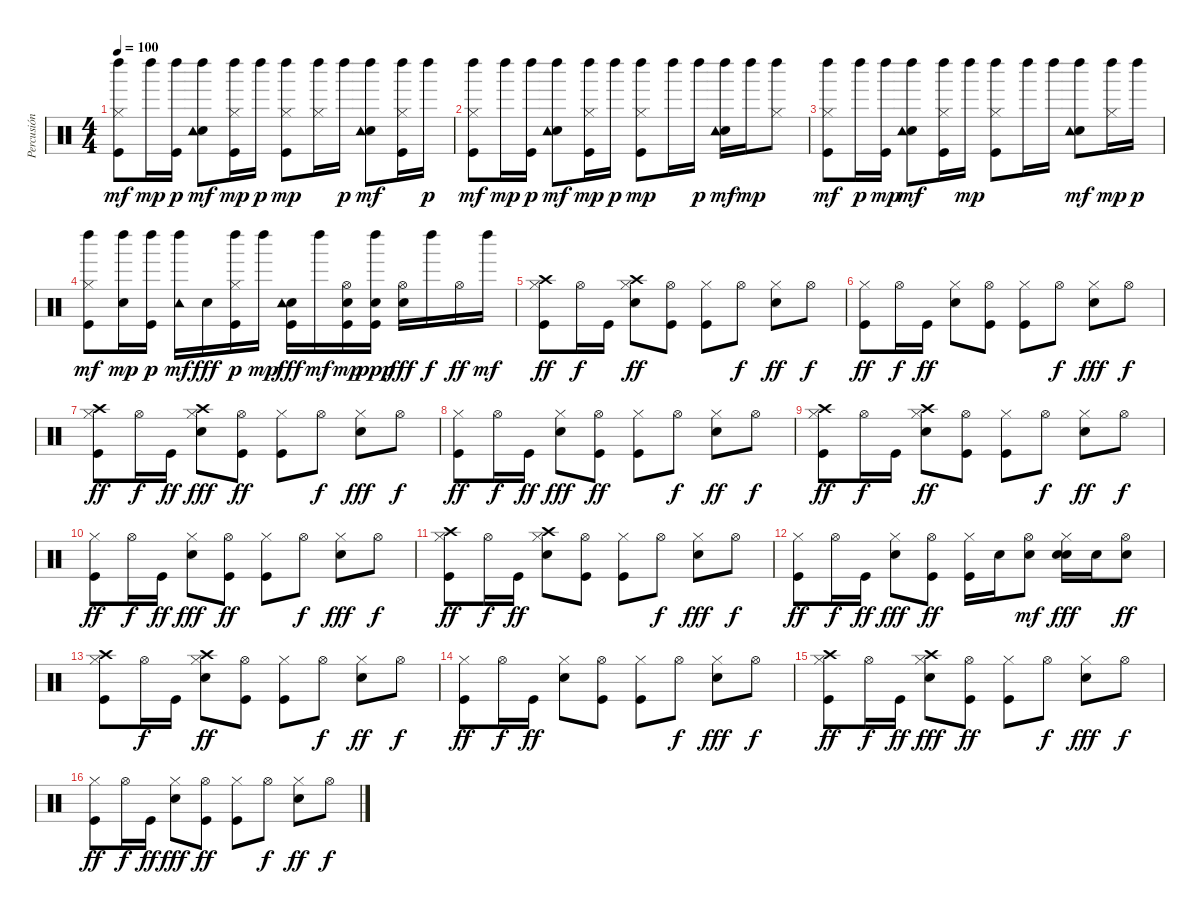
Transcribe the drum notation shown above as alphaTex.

\track ("Percusión" "Percusión") {instrument percussion}
\staff {score}
\articulation defaults
\ts (4 4)
\tempo 100
\clef neutral
\ks c
("Kick (hit)" "Hi-Hat (closed)" "Left Maraca (hit)").8{dy mf} "Left Maraca (hit)".16{dy mp} ("Kick (hit)" "Left Maraca (hit)").16{dy p} ("Snare (hit) 2" "Tambourine (hit)" "Left Maraca (hit)").8{dy mf} ("Kick (hit)" "Hi-Hat (closed)" "Left Maraca (hit)").16{dy mp} "Left Maraca (hit)".16{dy p} ("Kick (hit)" "Hi-Hat (closed)" "Left Maraca (hit)").8{dy mp} ("Hi-Hat (closed)" "Left Maraca (hit)").16 "Left Maraca (hit)".16{dy p} ("Snare (hit) 2" "Tambourine (hit)" "Left Maraca (hit)").8{dy mf} ("Kick (hit)" "Hi-Hat (closed)" "Left Maraca (hit)").16 "Left Maraca (hit)".16{dy p} |
("Kick (hit)" "Hi-Hat (closed)" "Left Maraca (hit)").8{dy mf} "Left Maraca (hit)".16{dy mp} ("Kick (hit)" "Left Maraca (hit)").16{dy p} ("Snare (hit) 2" "Tambourine (hit)" "Left Maraca (hit)").8{dy mf} ("Kick (hit)" "Hi-Hat (closed)" "Left Maraca (hit)").16{dy mp} "Left Maraca (hit)".16{dy p} ("Kick (hit)" "Hi-Hat (closed)" "Left Maraca (hit)").8{dy mp} "Left Maraca (hit)".16 "Left Maraca (hit)".16{dy p} ("Snare (hit) 2" "Tambourine (hit)" "Left Maraca (hit)").16{dy mf} "Left Maraca (hit)".16{dy mp} ("Hi-Hat (closed)" "Left Maraca (hit)").8 |
("Kick (hit)" "Hi-Hat (closed)" "Left Maraca (hit)").8{dy mf} "Left Maraca (hit)".16{dy p} ("Kick (hit)" "Left Maraca (hit)").16{dy mp} ("Snare (hit) 2" "Tambourine (hit)" "Left Maraca (hit)").8{dy mf} ("Kick (hit)" "Hi-Hat (closed)" "Left Maraca (hit)").16 "Left Maraca (hit)".16{dy mp} ("Kick (hit)" "Hi-Hat (closed)" "Left Maraca (hit)").8 "Left Maraca (hit)".16 "Left Maraca (hit)".16 ("Snare (hit) 2" "Tambourine (hit)" "Left Maraca (hit)").8{dy mf} ("Hi-Hat (closed)" "Left Maraca (hit)").16{dy mp} "Left Maraca (hit)".16{dy p} |
("Kick (hit)" "Hi-Hat (closed)" "Left Maraca (hit)").8{dy mf} ("Snare (hit) 2" "Left Maraca (hit)").16{dy mp} ("Kick (hit)" "Left Maraca (hit)").16{dy p} ("Tambourine (hit)" "Left Maraca (hit)").16{dy mf} "Snare (hit) 2".16{dy fff} ("Kick (hit)" "Hi-Hat (closed)" "Left Maraca (hit)").16{dy p} "Left Maraca (hit)".16{dy mp} ("Kick (hit)" "Snare (hit) 2" "Tambourine (hit)").16{dy fff} "Left Maraca (hit)".16{dy mf} ("Kick (hit)" "Snare (hit) 2" "Hi-Hat (open)").16{dy mp} ("Kick (hit)" "Snare (hit) 2" "Left Maraca (hit)").16{dy ppp} ("Snare (hit) 2" "Hi-Hat (open)").16{dy fff} "Left Maraca (hit)".16{dy f} "Hi-Hat (open)".16{dy ff} "Left Maraca (hit)".16{dy mf} |
("Kick (hit)" "Hi-Hat (closed)" "Crash high (hit)").8{dy ff} "Hi-Hat (open)".16{dy f} "Kick (hit)".16 ("Snare (hit) 2" "Hi-Hat (closed)" "Crash high (hit)").8{dy ff} ("Kick (hit)" "Hi-Hat (open)").8 ("Kick (hit)" "Hi-Hat (closed)").8 "Hi-Hat (open)".8{dy f} ("Snare (hit) 2" "Hi-Hat (closed)").8{dy ff} "Hi-Hat (open)".8{dy f} |
("Kick (hit)" "Hi-Hat (closed)").8{dy ff} "Hi-Hat (open)".16{dy f} "Kick (hit)".16{dy ff} ("Snare (hit) 2" "Hi-Hat (closed)").8 ("Kick (hit)" "Hi-Hat (open)").8 ("Kick (hit)" "Hi-Hat (closed)").8 "Hi-Hat (open)".8{dy f} ("Snare (hit) 2" "Hi-Hat (closed)").8{dy fff} "Hi-Hat (open)".8{dy f} |
("Kick (hit)" "Hi-Hat (closed)" "Crash high (hit)").8{dy ff} "Hi-Hat (open)".16{dy f} "Kick (hit)".16{dy ff} ("Snare (hit) 2" "Hi-Hat (closed)" "Crash high (hit)").8{dy fff} ("Kick (hit)" "Hi-Hat (open)").8{dy ff} ("Kick (hit)" "Hi-Hat (closed)").8 "Hi-Hat (open)".8{dy f} ("Snare (hit) 2" "Hi-Hat (closed)").8{dy fff} "Hi-Hat (open)".8{dy f} |
("Kick (hit)" "Hi-Hat (closed)").8{dy ff} "Hi-Hat (open)".16{dy f} "Kick (hit)".16{dy ff} ("Snare (hit) 2" "Hi-Hat (closed)").8{dy fff} ("Kick (hit)" "Hi-Hat (open)").8{dy ff} ("Kick (hit)" "Hi-Hat (closed)").8 "Hi-Hat (open)".8{dy f} ("Snare (hit) 2" "Hi-Hat (closed)").8{dy ff} "Hi-Hat (open)".8{dy f} |
("Kick (hit)" "Hi-Hat (closed)" "Crash high (hit)").8{dy ff} "Hi-Hat (open)".16{dy f} "Kick (hit)".16 ("Snare (hit) 2" "Hi-Hat (closed)" "Crash high (hit)").8{dy ff} ("Kick (hit)" "Hi-Hat (open)").8 ("Kick (hit)" "Hi-Hat (closed)").8 "Hi-Hat (open)".8{dy f} ("Snare (hit) 2" "Hi-Hat (closed)").8{dy ff} "Hi-Hat (open)".8{dy f} |
("Kick (hit)" "Hi-Hat (closed)").8{dy ff} "Hi-Hat (open)".16{dy f} "Kick (hit)".16{dy ff} ("Snare (hit) 2" "Hi-Hat (closed)").8{dy fff} ("Kick (hit)" "Hi-Hat (open)").8{dy ff} ("Kick (hit)" "Hi-Hat (closed)").8 "Hi-Hat (open)".8{dy f} ("Snare (hit) 2" "Hi-Hat (closed)").8{dy fff} "Hi-Hat (open)".8{dy f} |
("Kick (hit)" "Hi-Hat (closed)" "Crash high (hit)").8{dy ff} "Hi-Hat (open)".16{dy f} "Kick (hit)".16{dy ff} ("Snare (hit) 2" "Hi-Hat (closed)" "Crash high (hit)").8 ("Kick (hit)" "Hi-Hat (open)").8 ("Kick (hit)" "Hi-Hat (closed)").8 "Hi-Hat (open)".8{dy f} ("Snare (hit) 2" "Hi-Hat (closed)").8{dy fff} "Hi-Hat (open)".8{dy f} |
("Kick (hit)" "Hi-Hat (closed)").8{dy ff} "Hi-Hat (open)".16{dy f} "Kick (hit)".16{dy ff} ("Snare (hit) 2" "Hi-Hat (closed)").8{dy fff} ("Kick (hit)" "Hi-Hat (open)").8{dy ff} ("Kick (hit)" "Hi-Hat (closed)").16 "Electric Snare (hit)".16 ("Electric Snare (hit)" "Hi-Hat (open)").8{dy mf} ("Snare (hit) 2" "Electric Snare (hit)" "Hi-Hat (closed)").16{dy fff} "Electric Snare (hit)".16 ("Electric Snare (hit)" "Hi-Hat (open)").8{dy ff} |
("Kick (hit)" "Hi-Hat (closed)" "Crash high (hit)").8 "Hi-Hat (open)".16{dy f} "Kick (hit)".16 ("Snare (hit) 2" "Hi-Hat (closed)" "Crash high (hit)").8{dy ff} ("Kick (hit)" "Hi-Hat (open)").8 ("Kick (hit)" "Hi-Hat (closed)").8 "Hi-Hat (open)".8{dy f} ("Snare (hit) 2" "Hi-Hat (closed)").8{dy ff} "Hi-Hat (open)".8{dy f} |
("Kick (hit)" "Hi-Hat (closed)").8{dy ff} "Hi-Hat (open)".16{dy f} "Kick (hit)".16{dy ff} ("Snare (hit) 2" "Hi-Hat (closed)").8 ("Kick (hit)" "Hi-Hat (open)").8 ("Kick (hit)" "Hi-Hat (closed)").8 "Hi-Hat (open)".8{dy f} ("Snare (hit) 2" "Hi-Hat (closed)").8{dy fff} "Hi-Hat (open)".8{dy f} |
("Kick (hit)" "Hi-Hat (closed)" "Crash high (hit)").8{dy ff} "Hi-Hat (open)".16{dy f} "Kick (hit)".16{dy ff} ("Snare (hit) 2" "Hi-Hat (closed)" "Crash high (hit)").8{dy fff} ("Kick (hit)" "Hi-Hat (open)").8{dy ff} ("Kick (hit)" "Hi-Hat (closed)").8 "Hi-Hat (open)".8{dy f} ("Snare (hit) 2" "Hi-Hat (closed)").8{dy fff} "Hi-Hat (open)".8{dy f} |
("Kick (hit)" "Hi-Hat (closed)").8{dy ff} "Hi-Hat (open)".16{dy f} "Kick (hit)".16{dy ff} ("Snare (hit) 2" "Hi-Hat (closed)").8{dy fff} ("Kick (hit)" "Hi-Hat (open)").8{dy ff} ("Kick (hit)" "Hi-Hat (closed)").8 "Hi-Hat (open)".8{dy f} ("Snare (hit) 2" "Hi-Hat (closed)").8{dy ff} "Hi-Hat (open)".8{dy f}
